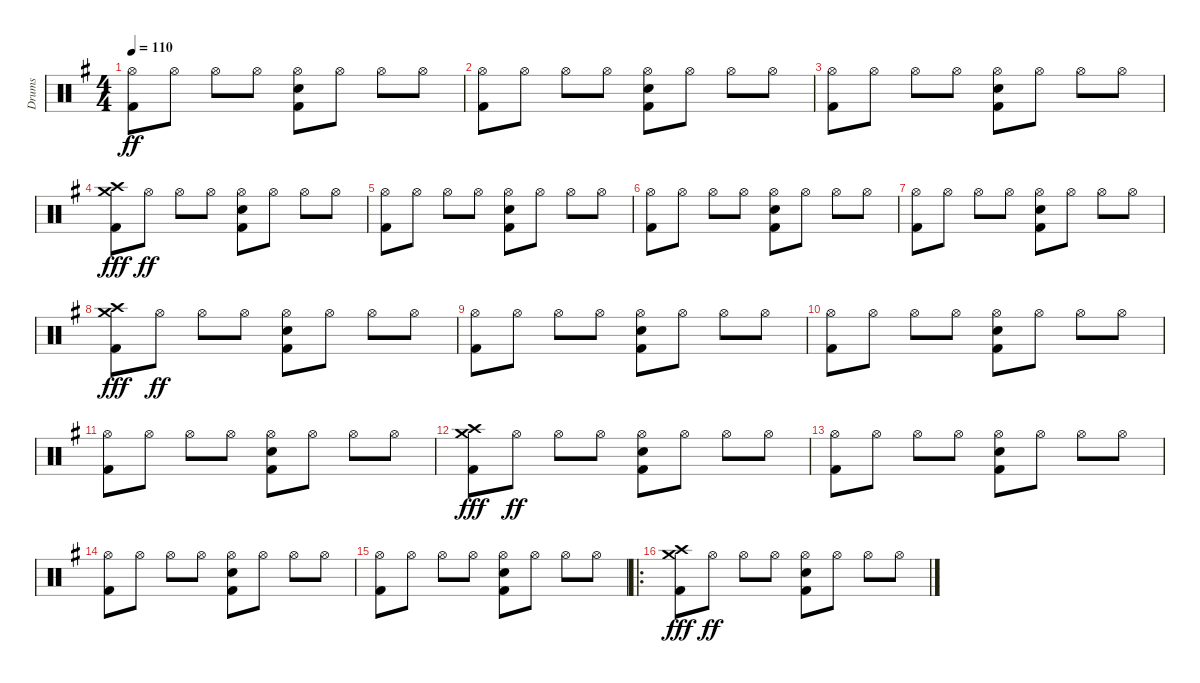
\track ("Drums" "Drums") {instrument percussion}
\staff {score}
\articulation defaults
\ts (4 4)
\tempo 110
\clef neutral
\ks eminor
("Kick (hit) 2" "Hi-Hat (open)").8{dy ff} "Hi-Hat (open)".8 "Hi-Hat (open)".8 "Hi-Hat (open)".8 ("Kick (hit) 2" "Electric Snare (hit)" "Hi-Hat (open)").8 "Hi-Hat (open)".8 "Hi-Hat (open)".8 "Hi-Hat (open)".8 |
("Kick (hit) 2" "Hi-Hat (open)").8 "Hi-Hat (open)".8 "Hi-Hat (open)".8 "Hi-Hat (open)".8 ("Kick (hit) 2" "Electric Snare (hit)" "Hi-Hat (open)").8 "Hi-Hat (open)".8 "Hi-Hat (open)".8 "Hi-Hat (open)".8 |
("Kick (hit) 2" "Hi-Hat (open)").8 "Hi-Hat (open)".8 "Hi-Hat (open)".8 "Hi-Hat (open)".8 ("Kick (hit) 2" "Electric Snare (hit)" "Hi-Hat (open)").8 "Hi-Hat (open)".8 "Hi-Hat (open)".8 "Hi-Hat (open)".8 |
("Kick (hit) 2" "Crash high (hit)" "Crash medium (hit)").8{dy fff} "Hi-Hat (open)".8{dy ff} "Hi-Hat (open)".8 "Hi-Hat (open)".8 ("Kick (hit) 2" "Electric Snare (hit)" "Hi-Hat (open)").8 "Hi-Hat (open)".8 "Hi-Hat (open)".8 "Hi-Hat (open)".8 |
("Kick (hit) 2" "Hi-Hat (open)").8 "Hi-Hat (open)".8 "Hi-Hat (open)".8 "Hi-Hat (open)".8 ("Kick (hit) 2" "Electric Snare (hit)" "Hi-Hat (open)").8 "Hi-Hat (open)".8 "Hi-Hat (open)".8 "Hi-Hat (open)".8 |
("Kick (hit) 2" "Hi-Hat (open)").8 "Hi-Hat (open)".8 "Hi-Hat (open)".8 "Hi-Hat (open)".8 ("Kick (hit) 2" "Electric Snare (hit)" "Hi-Hat (open)").8 "Hi-Hat (open)".8 "Hi-Hat (open)".8 "Hi-Hat (open)".8 |
("Kick (hit) 2" "Hi-Hat (open)").8 "Hi-Hat (open)".8 "Hi-Hat (open)".8 "Hi-Hat (open)".8 ("Kick (hit) 2" "Electric Snare (hit)" "Hi-Hat (open)").8 "Hi-Hat (open)".8 "Hi-Hat (open)".8 "Hi-Hat (open)".8 |
("Kick (hit) 2" "Crash high (hit)" "Crash medium (hit)").8{dy fff} "Hi-Hat (open)".8{dy ff} "Hi-Hat (open)".8 "Hi-Hat (open)".8 ("Kick (hit) 2" "Electric Snare (hit)" "Hi-Hat (open)").8 "Hi-Hat (open)".8 "Hi-Hat (open)".8 "Hi-Hat (open)".8 |
("Kick (hit) 2" "Hi-Hat (open)").8 "Hi-Hat (open)".8 "Hi-Hat (open)".8 "Hi-Hat (open)".8 ("Kick (hit) 2" "Electric Snare (hit)" "Hi-Hat (open)").8 "Hi-Hat (open)".8 "Hi-Hat (open)".8 "Hi-Hat (open)".8 |
("Kick (hit) 2" "Hi-Hat (open)").8 "Hi-Hat (open)".8 "Hi-Hat (open)".8 "Hi-Hat (open)".8 ("Kick (hit) 2" "Electric Snare (hit)" "Hi-Hat (open)").8 "Hi-Hat (open)".8 "Hi-Hat (open)".8 "Hi-Hat (open)".8 |
("Kick (hit) 2" "Hi-Hat (open)").8 "Hi-Hat (open)".8 "Hi-Hat (open)".8 "Hi-Hat (open)".8 ("Kick (hit) 2" "Electric Snare (hit)" "Hi-Hat (open)").8 "Hi-Hat (open)".8 "Hi-Hat (open)".8 "Hi-Hat (open)".8 |
("Kick (hit) 2" "Crash high (hit)" "Crash medium (hit)").8{dy fff} "Hi-Hat (open)".8{dy ff} "Hi-Hat (open)".8 "Hi-Hat (open)".8 ("Kick (hit) 2" "Electric Snare (hit)" "Hi-Hat (open)").8 "Hi-Hat (open)".8 "Hi-Hat (open)".8 "Hi-Hat (open)".8 |
("Kick (hit) 2" "Hi-Hat (open)").8 "Hi-Hat (open)".8 "Hi-Hat (open)".8 "Hi-Hat (open)".8 ("Kick (hit) 2" "Electric Snare (hit)" "Hi-Hat (open)").8 "Hi-Hat (open)".8 "Hi-Hat (open)".8 "Hi-Hat (open)".8 |
("Kick (hit) 2" "Hi-Hat (open)").8 "Hi-Hat (open)".8 "Hi-Hat (open)".8 "Hi-Hat (open)".8 ("Kick (hit) 2" "Electric Snare (hit)" "Hi-Hat (open)").8 "Hi-Hat (open)".8 "Hi-Hat (open)".8 "Hi-Hat (open)".8 |
("Kick (hit) 2" "Hi-Hat (open)").8 "Hi-Hat (open)".8 "Hi-Hat (open)".8 "Hi-Hat (open)".8 ("Kick (hit) 2" "Electric Snare (hit)" "Hi-Hat (open)").8 "Hi-Hat (open)".8 "Hi-Hat (open)".8 "Hi-Hat (open)".8 |
\ro
("Kick (hit) 2" "Crash high (hit)" "Crash medium (hit)").8{dy fff} "Hi-Hat (open)".8{dy ff} "Hi-Hat (open)".8 "Hi-Hat (open)".8 ("Kick (hit) 2" "Electric Snare (hit)" "Hi-Hat (open)").8 "Hi-Hat (open)".8 "Hi-Hat (open)".8 "Hi-Hat (open)".8
